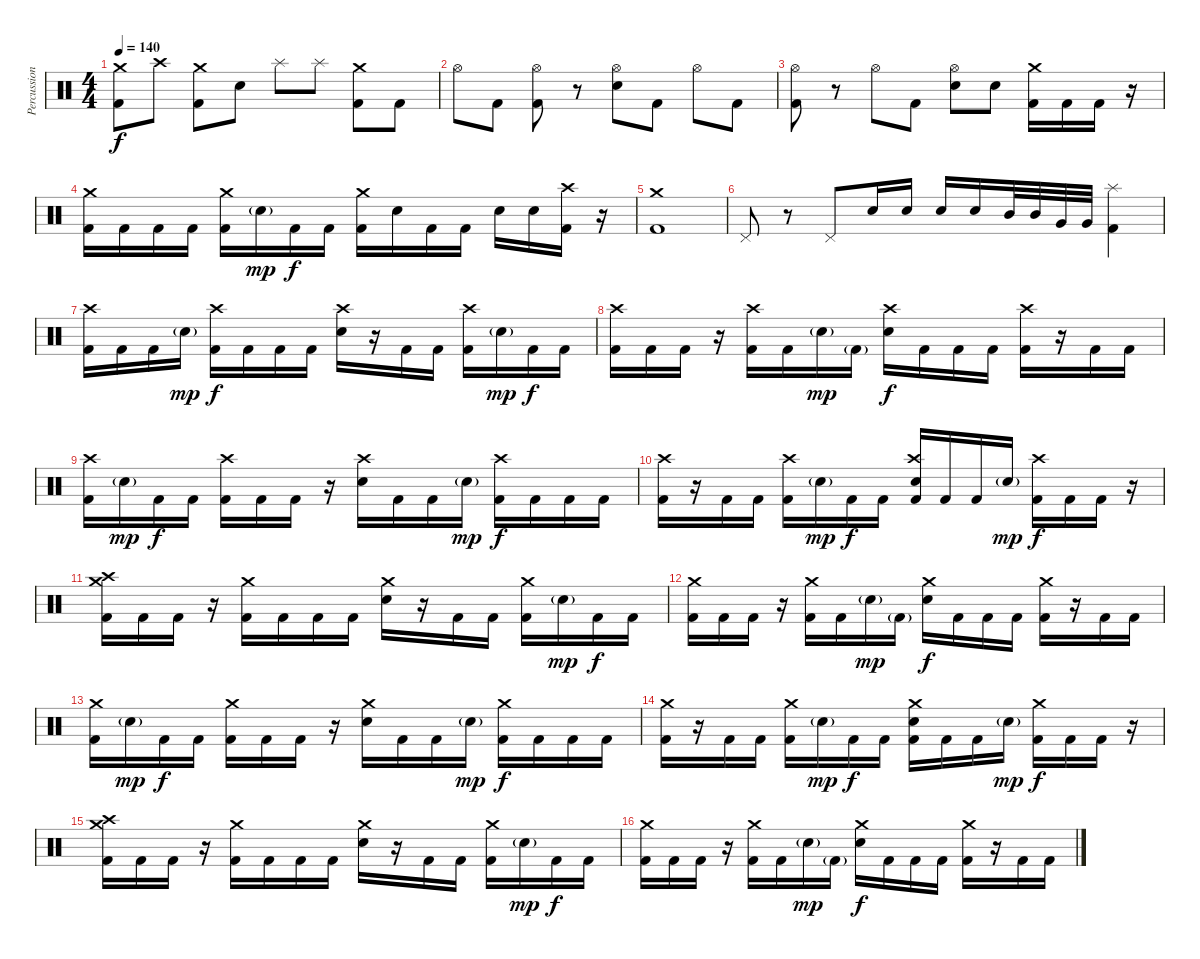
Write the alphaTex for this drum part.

\track ("Percussion" "Percussion") {instrument percussion}
\staff {score}
\articulation defaults
\ts (4 4)
\tempo 140
\clef neutral
\ks c
("Crash medium (hit)" "Kick (hit) 2").8{dy f} "Crash high (hit)".8 ("Crash medium (hit)" "Kick (hit) 2").8 "Electric Snare (hit)".8 "Splash (hit)".8 "Splash (hit)".8 ("Crash medium (hit)" "Kick (hit) 2").8 "Kick (hit) 2".8 |
"Hi-Hat (open)".8 "Kick (hit) 2".8 ("Hi-Hat (open)" "Kick (hit) 2").8 r.8 ("Hi-Hat (open)" "Electric Snare (hit)").8 "Kick (hit) 2".8 "Hi-Hat (open)".8 "Kick (hit) 2".8 |
("Hi-Hat (open)" "Kick (hit) 2").8 r.8 "Hi-Hat (open)".8 "Kick (hit) 2".8 ("Hi-Hat (open)" "Electric Snare (hit)").8 "Electric Snare (hit)".8 ("Crash medium (hit)" "Kick (hit) 2").16 "Kick (hit) 2".16 "Kick (hit) 2".16 r.16 |
("Crash medium (hit)" "Kick (hit) 2").16 "Kick (hit) 2".16 "Kick (hit) 2".16 "Kick (hit) 2".16 ("Crash medium (hit)" "Kick (hit) 2").16 "Electric Snare (hit)"{g}.16{dy mp} "Kick (hit) 2".16{dy f} "Kick (hit) 2".16 ("Crash medium (hit)" "Kick (hit) 2").16 "Electric Snare (hit)".16 "Kick (hit) 2".16 "Kick (hit) 2".16 "Electric Snare (hit)".16 "Electric Snare (hit)".16 ("Crash high (hit)" "Kick (hit) 2").16 r.16 |
("Crash medium (hit)" "Kick (hit) 2").1 |
"Pedal Hi-Hat (hit)".8 r.8 "Pedal Hi-Hat (hit)".8 "Electric Snare (hit)".16 "Electric Snare (hit)".16 "Electric Snare (hit)".16 "Electric Snare (hit)".16 "Mid Tom (hit)".32 "Mid Tom (hit)".32 "Very Low Tom (hit)".32 "Very Low Tom (hit)".32 ("Splash (hit)" "Kick (hit) 2").4 |
("Crash high (hit)" "Kick (hit) 2").16 "Kick (hit) 2".16 "Kick (hit) 2".16 "Electric Snare (hit)"{g}.16{dy mp} ("Crash high (hit)" "Kick (hit) 2").16{dy f} "Kick (hit) 2".16 "Kick (hit) 2".16 "Kick (hit) 2".16 ("Crash high (hit)" "Electric Snare (hit)").16 r.16 "Kick (hit) 2".16 "Kick (hit) 2".16 ("Crash high (hit)" "Kick (hit) 2").16 "Electric Snare (hit)"{g}.16{dy mp} "Kick (hit) 2".16{dy f} "Kick (hit) 2".16 |
("Crash high (hit)" "Kick (hit) 2").16 "Kick (hit) 2".16 "Kick (hit) 2".16 r.16 ("Crash high (hit)" "Kick (hit) 2").16 "Kick (hit) 2".16 "Electric Snare (hit)"{g}.16{dy mp} "Kick (hit) 2"{g}.16 ("Crash high (hit)" "Electric Snare (hit)").16{dy f} "Kick (hit) 2".16 "Kick (hit) 2".16 "Kick (hit) 2".16 ("Crash high (hit)" "Kick (hit) 2").16 r.16 "Kick (hit) 2".16 "Kick (hit) 2".16 |
("Crash high (hit)" "Kick (hit) 2").16 "Electric Snare (hit)"{g}.16{dy mp} "Kick (hit) 2".16{dy f} "Kick (hit) 2".16 ("Crash high (hit)" "Kick (hit) 2").16 "Kick (hit) 2".16 "Kick (hit) 2".16 r.16 ("Crash high (hit)" "Electric Snare (hit)").16 "Kick (hit) 2".16 "Kick (hit) 2".16 "Electric Snare (hit)"{g}.16{dy mp} ("Crash high (hit)" "Kick (hit) 2").16{dy f} "Kick (hit) 2".16 "Kick (hit) 2".16 "Kick (hit) 2".16 |
("Crash high (hit)" "Kick (hit) 2").16 r.16 "Kick (hit) 2".16 "Kick (hit) 2".16 ("Crash high (hit)" "Kick (hit) 2").16 "Electric Snare (hit)"{g}.16{dy mp} "Kick (hit) 2".16{dy f} "Kick (hit) 2".16 ("Crash high (hit)" "Electric Snare (hit)" "Kick (hit) 2").16 "Kick (hit) 2".16 "Kick (hit) 2".16 "Electric Snare (hit)"{g}.16{dy mp} ("Crash high (hit)" "Kick (hit) 2").16{dy f} "Kick (hit) 2".16 "Kick (hit) 2".16 r.16 |
("Crash high (hit)" "Crash medium (hit)" "Kick (hit) 2").16 "Kick (hit) 2".16 "Kick (hit) 2".16 r.16 ("Crash medium (hit)" "Kick (hit) 2").16 "Kick (hit) 2".16 "Kick (hit) 2".16 "Kick (hit) 2".16 ("Crash medium (hit)" "Electric Snare (hit)").16 r.16 "Kick (hit) 2".16 "Kick (hit) 2".16 ("Crash medium (hit)" "Kick (hit) 2").16 "Electric Snare (hit)"{g}.16{dy mp} "Kick (hit) 2".16{dy f} "Kick (hit) 2".16 |
("Crash medium (hit)" "Kick (hit) 2").16 "Kick (hit) 2".16 "Kick (hit) 2".16 r.16 ("Crash medium (hit)" "Kick (hit) 2").16 "Kick (hit) 2".16 "Electric Snare (hit)"{g}.16{dy mp} "Kick (hit) 2"{g}.16 ("Crash medium (hit)" "Electric Snare (hit)").16{dy f} "Kick (hit) 2".16 "Kick (hit) 2".16 "Kick (hit) 2".16 ("Crash medium (hit)" "Kick (hit) 2").16 r.16 "Kick (hit) 2".16 "Kick (hit) 2".16 |
("Crash medium (hit)" "Kick (hit) 2").16 "Electric Snare (hit)"{g}.16{dy mp} "Kick (hit) 2".16{dy f} "Kick (hit) 2".16 ("Crash medium (hit)" "Kick (hit) 2").16 "Kick (hit) 2".16 "Kick (hit) 2".16 r.16 ("Crash medium (hit)" "Electric Snare (hit)").16 "Kick (hit) 2".16 "Kick (hit) 2".16 "Electric Snare (hit)"{g}.16{dy mp} ("Crash medium (hit)" "Kick (hit) 2").16{dy f} "Kick (hit) 2".16 "Kick (hit) 2".16 "Kick (hit) 2".16 |
("Crash medium (hit)" "Kick (hit) 2").16 r.16 "Kick (hit) 2".16 "Kick (hit) 2".16 ("Crash medium (hit)" "Kick (hit) 2").16 "Electric Snare (hit)"{g}.16{dy mp} "Kick (hit) 2".16{dy f} "Kick (hit) 2".16 ("Crash medium (hit)" "Electric Snare (hit)" "Kick (hit) 2").16 "Kick (hit) 2".16 "Kick (hit) 2".16 "Electric Snare (hit)"{g}.16{dy mp} ("Crash medium (hit)" "Kick (hit) 2").16{dy f} "Kick (hit) 2".16 "Kick (hit) 2".16 r.16 |
("Crash high (hit)" "Crash medium (hit)" "Kick (hit) 2").16 "Kick (hit) 2".16 "Kick (hit) 2".16 r.16 ("Crash medium (hit)" "Kick (hit) 2").16 "Kick (hit) 2".16 "Kick (hit) 2".16 "Kick (hit) 2".16 ("Crash medium (hit)" "Electric Snare (hit)").16 r.16 "Kick (hit) 2".16 "Kick (hit) 2".16 ("Crash medium (hit)" "Kick (hit) 2").16 "Electric Snare (hit)"{g}.16{dy mp} "Kick (hit) 2".16{dy f} "Kick (hit) 2".16 |
("Crash medium (hit)" "Kick (hit) 2").16 "Kick (hit) 2".16 "Kick (hit) 2".16 r.16 ("Crash medium (hit)" "Kick (hit) 2").16 "Kick (hit) 2".16 "Electric Snare (hit)"{g}.16{dy mp} "Kick (hit) 2"{g}.16 ("Crash medium (hit)" "Electric Snare (hit)").16{dy f} "Kick (hit) 2".16 "Kick (hit) 2".16 "Kick (hit) 2".16 ("Crash medium (hit)" "Kick (hit) 2").16 r.16 "Kick (hit) 2".16 "Kick (hit) 2".16
